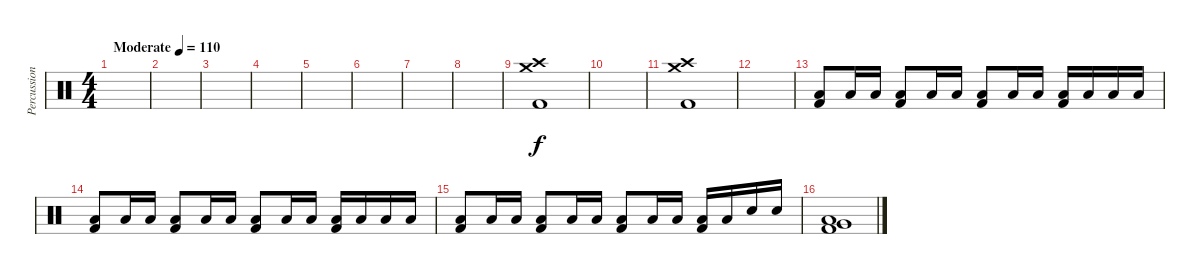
\track ("Percussion" "Percussion") {instrument percussion}
\staff {score}
\articulation defaults
\ts (4 4)
\tempo (110 "Moderate")
\clef neutral
\ks c
|
|
|
|
|
|
|
|
("Crash medium (hit)" "Crash high (hit)" "Kick (hit) 2").1 |
|
("Crash medium (hit)" "Crash high (hit)" "Kick (hit) 2").1 |
|
("Low Floor Tom (hit)" "Kick (hit) 2").8 "Low Floor Tom (hit)".16 "Low Floor Tom (hit)".16 ("Low Floor Tom (hit)" "Kick (hit) 2").8 "Low Floor Tom (hit)".16 "Low Floor Tom (hit)".16 ("Low Floor Tom (hit)" "Kick (hit) 2").8 "Low Floor Tom (hit)".16 "Low Floor Tom (hit)".16 ("Low Floor Tom (hit)" "Kick (hit) 2").16 "Low Floor Tom (hit)".16 "Low Floor Tom (hit)".16 "Low Floor Tom (hit)".16 |
("Low Floor Tom (hit)" "Kick (hit) 2").8 "Low Floor Tom (hit)".16 "Low Floor Tom (hit)".16 ("Low Floor Tom (hit)" "Kick (hit) 2").8 "Low Floor Tom (hit)".16 "Low Floor Tom (hit)".16 ("Low Floor Tom (hit)" "Kick (hit) 2").8 "Low Floor Tom (hit)".16 "Low Floor Tom (hit)".16 ("Low Floor Tom (hit)" "Kick (hit) 2").16 "Low Floor Tom (hit)".16 "Low Floor Tom (hit)".16 "Low Floor Tom (hit)".16 |
("Low Floor Tom (hit)" "Kick (hit) 2").8 "Low Floor Tom (hit)".16 "Low Floor Tom (hit)".16 ("Low Floor Tom (hit)" "Kick (hit) 2").8 "Low Floor Tom (hit)".16 "Low Floor Tom (hit)".16 ("Low Floor Tom (hit)" "Kick (hit) 2").8 "Low Floor Tom (hit)".16 "Low Floor Tom (hit)".16 ("Low Floor Tom (hit)" "Kick (hit) 2").16 "Low Floor Tom (hit)".16 "Snare (hit) 2".16 "Snare (hit) 2".16 |
("Very Low Tom (hit)" "Low Floor Tom (hit)" "Kick (hit) 2").1
